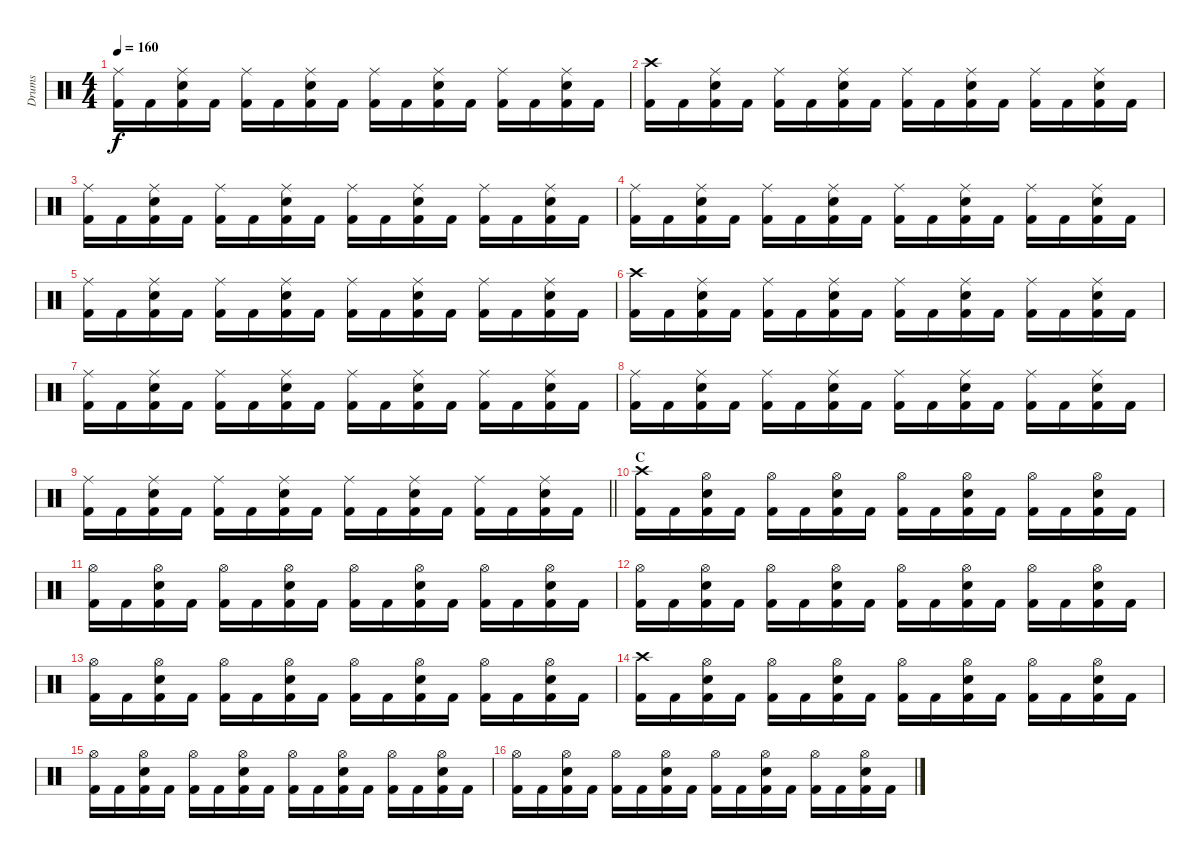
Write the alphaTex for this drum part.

\track ("Drums" "Drums") {instrument percussion}
\staff {score}
\articulation defaults
\ts (4 4)
\tempo 160
\clef neutral
\ks c
("Ride (middle)" "Kick (hit) 2").16{dy f} "Kick (hit) 2".16 ("Ride (middle)" "Snare (hit) 2" "Kick (hit) 2").16 "Kick (hit) 2".16 ("Ride (middle)" "Kick (hit) 2").16 "Kick (hit) 2".16 ("Ride (middle)" "Snare (hit) 2" "Kick (hit) 2").16 "Kick (hit) 2".16 ("Ride (middle)" "Kick (hit) 2").16 "Kick (hit) 2".16 ("Ride (middle)" "Snare (hit) 2" "Kick (hit) 2").16 "Kick (hit) 2".16 ("Ride (middle)" "Kick (hit) 2").16 "Kick (hit) 2".16 ("Ride (middle)" "Snare (hit) 2" "Kick (hit) 2").16 "Kick (hit) 2".16 |
("Crash high (hit)" "Kick (hit) 2").16 "Kick (hit) 2".16 ("Ride (middle)" "Snare (hit) 2" "Kick (hit) 2").16 "Kick (hit) 2".16 ("Ride (middle)" "Kick (hit) 2").16 "Kick (hit) 2".16 ("Ride (middle)" "Snare (hit) 2" "Kick (hit) 2").16 "Kick (hit) 2".16 ("Ride (middle)" "Kick (hit) 2").16 "Kick (hit) 2".16 ("Ride (middle)" "Snare (hit) 2" "Kick (hit) 2").16 "Kick (hit) 2".16 ("Ride (middle)" "Kick (hit) 2").16 "Kick (hit) 2".16 ("Ride (middle)" "Snare (hit) 2" "Kick (hit) 2").16 "Kick (hit) 2".16 |
("Ride (middle)" "Kick (hit) 2").16 "Kick (hit) 2".16 ("Ride (middle)" "Snare (hit) 2" "Kick (hit) 2").16 "Kick (hit) 2".16 ("Ride (middle)" "Kick (hit) 2").16 "Kick (hit) 2".16 ("Ride (middle)" "Snare (hit) 2" "Kick (hit) 2").16 "Kick (hit) 2".16 ("Ride (middle)" "Kick (hit) 2").16 "Kick (hit) 2".16 ("Ride (middle)" "Snare (hit) 2" "Kick (hit) 2").16 "Kick (hit) 2".16 ("Ride (middle)" "Kick (hit) 2").16 "Kick (hit) 2".16 ("Ride (middle)" "Snare (hit) 2" "Kick (hit) 2").16 "Kick (hit) 2".16 |
("Ride (middle)" "Kick (hit) 2").16 "Kick (hit) 2".16 ("Ride (middle)" "Snare (hit) 2" "Kick (hit) 2").16 "Kick (hit) 2".16 ("Ride (middle)" "Kick (hit) 2").16 "Kick (hit) 2".16 ("Ride (middle)" "Snare (hit) 2" "Kick (hit) 2").16 "Kick (hit) 2".16 ("Ride (middle)" "Kick (hit) 2").16 "Kick (hit) 2".16 ("Ride (middle)" "Snare (hit) 2" "Kick (hit) 2").16 "Kick (hit) 2".16 ("Ride (middle)" "Kick (hit) 2").16 "Kick (hit) 2".16 ("Ride (middle)" "Snare (hit) 2" "Kick (hit) 2").16 "Kick (hit) 2".16 |
("Ride (middle)" "Kick (hit) 2").16 "Kick (hit) 2".16 ("Ride (middle)" "Snare (hit) 2" "Kick (hit) 2").16 "Kick (hit) 2".16 ("Ride (middle)" "Kick (hit) 2").16 "Kick (hit) 2".16 ("Ride (middle)" "Snare (hit) 2" "Kick (hit) 2").16 "Kick (hit) 2".16 ("Ride (middle)" "Kick (hit) 2").16 "Kick (hit) 2".16 ("Ride (middle)" "Snare (hit) 2" "Kick (hit) 2").16 "Kick (hit) 2".16 ("Ride (middle)" "Kick (hit) 2").16 "Kick (hit) 2".16 ("Ride (middle)" "Snare (hit) 2" "Kick (hit) 2").16 "Kick (hit) 2".16 |
("Crash high (hit)" "Kick (hit) 2").16 "Kick (hit) 2".16 ("Ride (middle)" "Snare (hit) 2" "Kick (hit) 2").16 "Kick (hit) 2".16 ("Ride (middle)" "Kick (hit) 2").16 "Kick (hit) 2".16 ("Ride (middle)" "Snare (hit) 2" "Kick (hit) 2").16 "Kick (hit) 2".16 ("Ride (middle)" "Kick (hit) 2").16 "Kick (hit) 2".16 ("Ride (middle)" "Snare (hit) 2" "Kick (hit) 2").16 "Kick (hit) 2".16 ("Ride (middle)" "Kick (hit) 2").16 "Kick (hit) 2".16 ("Ride (middle)" "Snare (hit) 2" "Kick (hit) 2").16 "Kick (hit) 2".16 |
("Ride (middle)" "Kick (hit) 2").16 "Kick (hit) 2".16 ("Ride (middle)" "Snare (hit) 2" "Kick (hit) 2").16 "Kick (hit) 2".16 ("Ride (middle)" "Kick (hit) 2").16 "Kick (hit) 2".16 ("Ride (middle)" "Snare (hit) 2" "Kick (hit) 2").16 "Kick (hit) 2".16 ("Ride (middle)" "Kick (hit) 2").16 "Kick (hit) 2".16 ("Ride (middle)" "Snare (hit) 2" "Kick (hit) 2").16 "Kick (hit) 2".16 ("Ride (middle)" "Kick (hit) 2").16 "Kick (hit) 2".16 ("Ride (middle)" "Snare (hit) 2" "Kick (hit) 2").16 "Kick (hit) 2".16 |
("Ride (middle)" "Kick (hit) 2").16 "Kick (hit) 2".16 ("Ride (middle)" "Snare (hit) 2" "Kick (hit) 2").16 "Kick (hit) 2".16 ("Ride (middle)" "Kick (hit) 2").16 "Kick (hit) 2".16 ("Ride (middle)" "Snare (hit) 2" "Kick (hit) 2").16 "Kick (hit) 2".16 ("Ride (middle)" "Kick (hit) 2").16 "Kick (hit) 2".16 ("Ride (middle)" "Snare (hit) 2" "Kick (hit) 2").16 "Kick (hit) 2".16 ("Ride (middle)" "Kick (hit) 2").16 "Kick (hit) 2".16 ("Ride (middle)" "Snare (hit) 2" "Kick (hit) 2").16 "Kick (hit) 2".16 |
\barLineRight lightlight
("Ride (middle)" "Kick (hit) 2").16 "Kick (hit) 2".16 ("Ride (middle)" "Snare (hit) 2" "Kick (hit) 2").16 "Kick (hit) 2".16 ("Ride (middle)" "Kick (hit) 2").16 "Kick (hit) 2".16 ("Ride (middle)" "Snare (hit) 2" "Kick (hit) 2").16 "Kick (hit) 2".16 ("Ride (middle)" "Kick (hit) 2").16 "Kick (hit) 2".16 ("Ride (middle)" "Snare (hit) 2" "Kick (hit) 2").16 "Kick (hit) 2".16 ("Ride (middle)" "Kick (hit) 2").16 "Kick (hit) 2".16 ("Ride (middle)" "Snare (hit) 2" "Kick (hit) 2").16 "Kick (hit) 2".16 |
\section ("" "C")
("Crash high (hit)" "Kick (hit) 2").16 "Kick (hit) 2".16 ("Hi-Hat (open)" "Snare (hit) 2" "Kick (hit) 2").16 "Kick (hit) 2".16 ("Hi-Hat (open)" "Kick (hit) 2").16 "Kick (hit) 2".16 ("Hi-Hat (open)" "Snare (hit) 2" "Kick (hit) 2").16 "Kick (hit) 2".16 ("Hi-Hat (open)" "Kick (hit) 2").16 "Kick (hit) 2".16 ("Hi-Hat (open)" "Snare (hit) 2" "Kick (hit) 2").16 "Kick (hit) 2".16 ("Hi-Hat (open)" "Kick (hit) 2").16 "Kick (hit) 2".16 ("Hi-Hat (open)" "Snare (hit) 2" "Kick (hit) 2").16 "Kick (hit) 2".16 |
("Hi-Hat (open)" "Kick (hit) 2").16 "Kick (hit) 2".16 ("Hi-Hat (open)" "Snare (hit) 2" "Kick (hit) 2").16 "Kick (hit) 2".16 ("Hi-Hat (open)" "Kick (hit) 2").16 "Kick (hit) 2".16 ("Hi-Hat (open)" "Snare (hit) 2" "Kick (hit) 2").16 "Kick (hit) 2".16 ("Hi-Hat (open)" "Kick (hit) 2").16 "Kick (hit) 2".16 ("Hi-Hat (open)" "Snare (hit) 2" "Kick (hit) 2").16 "Kick (hit) 2".16 ("Hi-Hat (open)" "Kick (hit) 2").16 "Kick (hit) 2".16 ("Hi-Hat (open)" "Snare (hit) 2" "Kick (hit) 2").16 "Kick (hit) 2".16 |
("Hi-Hat (open)" "Kick (hit) 2").16 "Kick (hit) 2".16 ("Hi-Hat (open)" "Snare (hit) 2" "Kick (hit) 2").16 "Kick (hit) 2".16 ("Hi-Hat (open)" "Kick (hit) 2").16 "Kick (hit) 2".16 ("Hi-Hat (open)" "Snare (hit) 2" "Kick (hit) 2").16 "Kick (hit) 2".16 ("Hi-Hat (open)" "Kick (hit) 2").16 "Kick (hit) 2".16 ("Hi-Hat (open)" "Snare (hit) 2" "Kick (hit) 2").16 "Kick (hit) 2".16 ("Hi-Hat (open)" "Kick (hit) 2").16 "Kick (hit) 2".16 ("Hi-Hat (open)" "Snare (hit) 2" "Kick (hit) 2").16 "Kick (hit) 2".16 |
("Hi-Hat (open)" "Kick (hit) 2").16 "Kick (hit) 2".16 ("Hi-Hat (open)" "Snare (hit) 2" "Kick (hit) 2").16 "Kick (hit) 2".16 ("Hi-Hat (open)" "Kick (hit) 2").16 "Kick (hit) 2".16 ("Hi-Hat (open)" "Snare (hit) 2" "Kick (hit) 2").16 "Kick (hit) 2".16 ("Hi-Hat (open)" "Kick (hit) 2").16 "Kick (hit) 2".16 ("Hi-Hat (open)" "Snare (hit) 2" "Kick (hit) 2").16 "Kick (hit) 2".16 ("Hi-Hat (open)" "Kick (hit) 2").16 "Kick (hit) 2".16 ("Hi-Hat (open)" "Snare (hit) 2" "Kick (hit) 2").16 "Kick (hit) 2".16 |
("Crash high (hit)" "Kick (hit) 2").16 "Kick (hit) 2".16 ("Hi-Hat (open)" "Snare (hit) 2" "Kick (hit) 2").16 "Kick (hit) 2".16 ("Hi-Hat (open)" "Kick (hit) 2").16 "Kick (hit) 2".16 ("Hi-Hat (open)" "Snare (hit) 2" "Kick (hit) 2").16 "Kick (hit) 2".16 ("Hi-Hat (open)" "Kick (hit) 2").16 "Kick (hit) 2".16 ("Hi-Hat (open)" "Snare (hit) 2" "Kick (hit) 2").16 "Kick (hit) 2".16 ("Hi-Hat (open)" "Kick (hit) 2").16 "Kick (hit) 2".16 ("Hi-Hat (open)" "Snare (hit) 2" "Kick (hit) 2").16 "Kick (hit) 2".16 |
("Hi-Hat (open)" "Kick (hit) 2").16 "Kick (hit) 2".16 ("Hi-Hat (open)" "Snare (hit) 2" "Kick (hit) 2").16 "Kick (hit) 2".16 ("Hi-Hat (open)" "Kick (hit) 2").16 "Kick (hit) 2".16 ("Hi-Hat (open)" "Snare (hit) 2" "Kick (hit) 2").16 "Kick (hit) 2".16 ("Hi-Hat (open)" "Kick (hit) 2").16 "Kick (hit) 2".16 ("Hi-Hat (open)" "Snare (hit) 2" "Kick (hit) 2").16 "Kick (hit) 2".16 ("Hi-Hat (open)" "Kick (hit) 2").16 "Kick (hit) 2".16 ("Hi-Hat (open)" "Snare (hit) 2" "Kick (hit) 2").16 "Kick (hit) 2".16 |
("Hi-Hat (open)" "Kick (hit) 2").16 "Kick (hit) 2".16 ("Hi-Hat (open)" "Snare (hit) 2" "Kick (hit) 2").16 "Kick (hit) 2".16 ("Hi-Hat (open)" "Kick (hit) 2").16 "Kick (hit) 2".16 ("Hi-Hat (open)" "Snare (hit) 2" "Kick (hit) 2").16 "Kick (hit) 2".16 ("Hi-Hat (open)" "Kick (hit) 2").16 "Kick (hit) 2".16 ("Hi-Hat (open)" "Snare (hit) 2" "Kick (hit) 2").16 "Kick (hit) 2".16 ("Hi-Hat (open)" "Kick (hit) 2").16 "Kick (hit) 2".16 ("Hi-Hat (open)" "Snare (hit) 2" "Kick (hit) 2").16 "Kick (hit) 2".16
